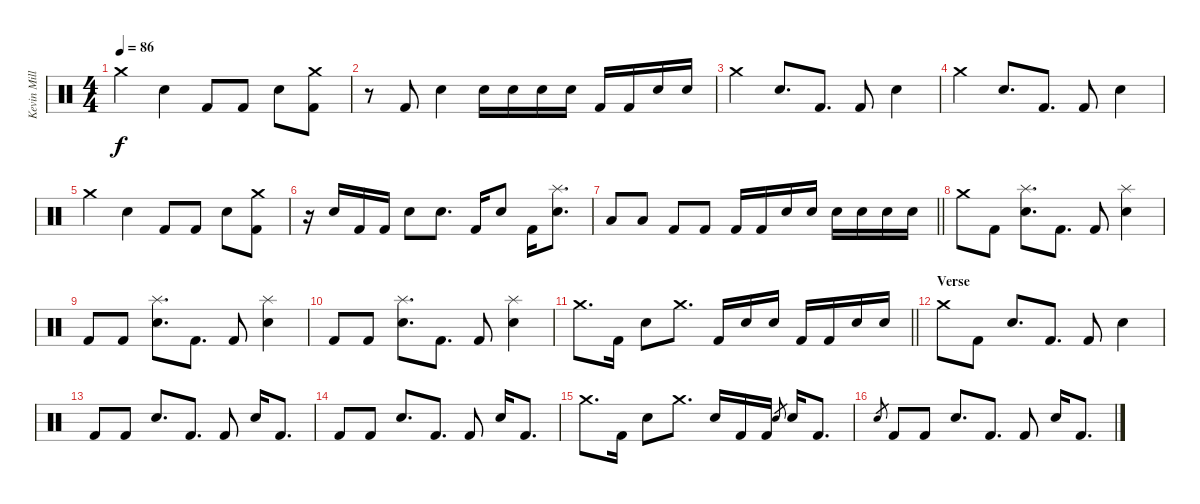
\track ("Kevin Miller (Drums)" "Kevin Mill") {instrument percussion}
\staff {score}
\articulation defaults
\ts (4 4)
\tempo 86
\clef neutral
\ks c "Crash medium (hit)".4{dy f} "Electric Snare (hit)".4 "Kick (hit) 2".8 "Kick (hit) 2".8 "Electric Snare (hit)".8
("Crash medium (hit)" "Kick (hit) 2").8 |
r.8 "Kick (hit) 2".8 "Electric Snare (hit)".4 "Snare (hit) 2".16 "Snare (hit) 2".16 "Snare (hit) 2".16 "Snare (hit) 2".16 "Kick (hit) 2".16 "Kick (hit) 2".16 "Electric Snare (hit)".16 "Electric Snare (hit)".16 |
"Crash medium (hit)".4 "Electric Snare (hit)".8{d} "Kick (hit) 2".8{d} "Kick (hit) 2".8 "Electric Snare (hit)".4 |
"Crash medium (hit)".4 "Electric Snare (hit)".8{d} "Kick (hit) 2".8{d} "Kick (hit) 2".8 "Electric Snare (hit)".4 |
"Crash medium (hit)".4 "Electric Snare (hit)".4 "Kick (hit) 2".8 "Kick (hit) 2".8 "Electric Snare (hit)".8 ("Crash medium (hit)" "Kick (hit) 2").8 |
r.16 "Electric Snare (hit)".16 "Kick (hit) 2".16 "Kick (hit) 2".16 "Electric Snare (hit)".8 "Electric Snare (hit)".8{d} "Kick (hit) 2".16 "Electric Snare (hit)".8 "Kick (hit) 2".16 ("Electric Snare (hit)" "Splash (hit)").8{d} |
\barLineRight lightlight "Low Floor Tom (hit)".8 "Low Floor Tom (hit)".8 "Kick (hit) 2".8 "Kick (hit) 2".8 "Kick (hit) 2".16 "Kick (hit) 2".16 "Electric Snare (hit)".16 "Electric Snare (hit)".16 "Electric Snare (hit)".16 "Electric Snare (hit)".16 "Electric Snare (hit)".16 "Electric Snare (hit)".16
|
"Crash medium (hit)".8 "Kick (hit) 2".8 ("Splash (hit)" "Electric Snare (hit)").8{d} "Kick (hit) 2".8{d} "Kick (hit) 2".8 ("Splash (hit)" "Electric Snare (hit)").4 |
"Kick (hit) 2".8 "Kick (hit) 2".8 ("Splash (hit)" "Electric Snare (hit)").8{d} "Kick (hit) 2".8{d} "Kick (hit) 2".8 ("Splash (hit)" "Electric Snare (hit)").4 |
"Kick (hit) 2".8 "Kick (hit) 2".8 ("Splash (hit)" "Electric Snare (hit)").8{d} "Kick (hit) 2".8{d} "Kick (hit) 2".8 ("Splash (hit)" "Electric Snare (hit)").4 |
\barLineRight lightlight "Crash medium (hit)".8{d} "Kick (hit) 2".16 "Electric Snare (hit)".8 "Crash medium (hit)".8{d} "Kick (hit) 2".16 "Snare (hit) 2".16 "Snare (hit) 2".16 "Kick (hit) 2".16 "Kick (hit) 2".16 "Snare (hit) 2".16 "Snare (hit) 2".16
|
\section ("" "Verse")
"Crash medium (hit)".8 "Kick (hit) 2".8 "Electric Snare (hit)".8{d} "Kick (hit) 2".8{d} "Kick (hit) 2".8 "Electric Snare (hit)".4 |
"Kick (hit) 2".8 "Kick (hit) 2".8 "Electric Snare (hit)".8{d} "Kick (hit) 2".8{d} "Kick (hit) 2".8 "Electric Snare (hit)".16 "Kick (hit) 2".8{d} |
"Kick (hit) 2".8 "Kick (hit) 2".8 "Electric Snare (hit)".8{d} "Kick (hit) 2".8{d} "Kick (hit) 2".8 "Electric Snare (hit)".16 "Kick (hit) 2".8{d} |
"Crash medium (hit)".8{d} "Kick (hit) 2".16 "Electric Snare (hit)".8 "Crash medium (hit)".8{d} "Electric Snare (hit)".16 "Kick (hit) 2".16 "Kick (hit) 2".16 "Electric Snare (hit)".8{gr} "Electric Snare (hit)".16 "Kick (hit) 2".8{d} |
"Electric Snare (hit)".8{gr} "Kick (hit) 2".8 "Kick (hit) 2".8 "Electric Snare (hit)".8{d} "Kick (hit) 2".8{d} "Kick (hit) 2".8 "Electric Snare (hit)".16 "Kick (hit) 2".8{d}
